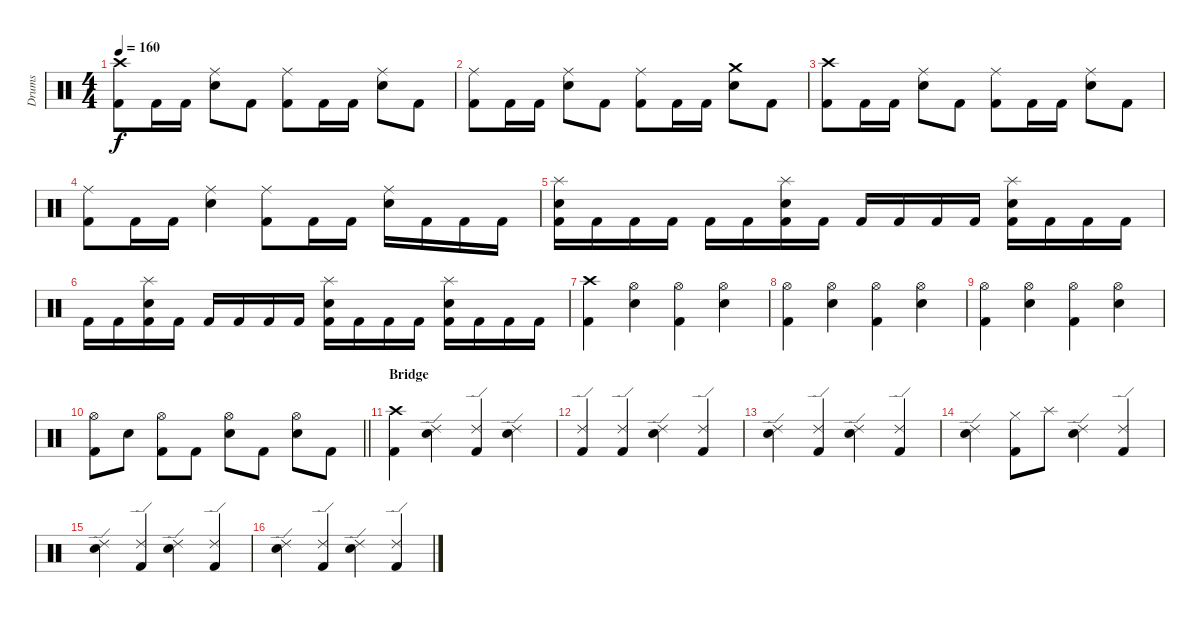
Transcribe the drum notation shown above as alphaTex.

\track ("Drums" "Drums") {instrument percussion}
\staff {score}
\articulation defaults
\ts (4 4)
\tempo 160
\clef neutral
\ks c
("Crash high (hit)" "Kick (hit) 2").8{dy f} "Kick (hit) 2".16 "Kick (hit) 2".16 ("Ride (middle)" "Snare (hit) 2").8 "Kick (hit) 2".8 ("Ride (middle)" "Kick (hit) 2").8 "Kick (hit) 2".16 "Kick (hit) 2".16 ("Ride (middle)" "Snare (hit) 2").8 "Kick (hit) 2".8 |
("Ride (middle)" "Kick (hit) 2").8 "Kick (hit) 2".16 "Kick (hit) 2".16 ("Ride (middle)" "Snare (hit) 2").8 "Kick (hit) 2".8 ("Ride (middle)" "Kick (hit) 2").8 "Kick (hit) 2".16 "Kick (hit) 2".16 ("Crash medium (hit)" "Snare (hit) 2").8 "Kick (hit) 2".8 |
("Crash high (hit)" "Kick (hit) 2").8 "Kick (hit) 2".16 "Kick (hit) 2".16 ("Ride (middle)" "Snare (hit) 2").8 "Kick (hit) 2".8 ("Ride (middle)" "Kick (hit) 2").8 "Kick (hit) 2".16 "Kick (hit) 2".16 ("Ride (middle)" "Snare (hit) 2").8 "Kick (hit) 2".8 |
("Ride (middle)" "Kick (hit) 2").8 "Kick (hit) 2".16 "Kick (hit) 2".16 ("Ride (middle)" "Snare (hit) 2").4 ("Ride (middle)" "Kick (hit) 2").8 "Kick (hit) 2".16 "Kick (hit) 2".16 ("Ride (middle)" "Snare (hit) 2").16 "Kick (hit) 2".16 "Kick (hit) 2".16 "Kick (hit) 2".16 |
("Splash (hit)" "Snare (hit) 2" "Kick (hit) 2").16 "Kick (hit) 2".16 "Kick (hit) 2".16 "Kick (hit) 2".16 "Kick (hit) 2".16 "Kick (hit) 2".16 ("Splash (hit)" "Snare (hit) 2" "Kick (hit) 2").16 "Kick (hit) 2".16 "Kick (hit) 2".16 "Kick (hit) 2".16 "Kick (hit) 2".16 "Kick (hit) 2".16 ("Splash (hit)" "Snare (hit) 2" "Kick (hit) 2").16 "Kick (hit) 2".16 "Kick (hit) 2".16 "Kick (hit) 2".16 |
"Kick (hit) 2".16 "Kick (hit) 2".16 ("Splash (hit)" "Snare (hit) 2" "Kick (hit) 2").16 "Kick (hit) 2".16 "Kick (hit) 2".16 "Kick (hit) 2".16 "Kick (hit) 2".16 "Kick (hit) 2".16 ("Splash (hit)" "Snare (hit) 2" "Kick (hit) 2").16 "Kick (hit) 2".16 "Kick (hit) 2".16 "Kick (hit) 2".16 ("Splash (hit)" "Snare (hit) 2" "Kick (hit) 2").16 "Kick (hit) 2".16 "Kick (hit) 2".16 "Kick (hit) 2".16 |
("Crash high (hit)" "Kick (hit) 2").4 ("Hi-Hat (open)" "Snare (hit) 2").4 ("Hi-Hat (open)" "Kick (hit) 2").4 ("Hi-Hat (open)" "Snare (hit) 2").4 |
("Hi-Hat (open)" "Kick (hit) 2").4 ("Hi-Hat (open)" "Snare (hit) 2").4 ("Hi-Hat (open)" "Kick (hit) 2").4 ("Hi-Hat (open)" "Snare (hit) 2").4 |
("Hi-Hat (open)" "Kick (hit) 2").4 ("Hi-Hat (open)" "Snare (hit) 2").4 ("Hi-Hat (open)" "Kick (hit) 2").4 ("Hi-Hat (open)" "Snare (hit) 2").4 |
\barLineRight lightlight
("Hi-Hat (open)" "Kick (hit) 2").8 "Snare (hit) 2".8 ("Hi-Hat (open)" "Kick (hit) 2").8 "Kick (hit) 2".8 ("Hi-Hat (open)" "Snare (hit) 2").8 "Kick (hit) 2".8 ("Hi-Hat (open)" "Snare (hit) 2").8 "Kick (hit) 2".8 |
\section ("" "Bridge")
("Crash high (hit)" "Kick (hit) 2").4 ("Ride (edge) 2" "Snare (hit) 2").4 ("Ride (edge) 2" "Kick (hit) 2").4 ("Ride (edge) 2" "Snare (hit) 2").4 |
("Ride (edge) 2" "Kick (hit) 2").4 ("Ride (edge) 2" "Kick (hit) 2").4 ("Ride (edge) 2" "Snare (hit) 2").4 ("Ride (edge) 2" "Kick (hit) 2").4 |
("Ride (edge) 2" "Snare (hit) 2").4 ("Ride (edge) 2" "Kick (hit) 2").4 ("Ride (edge) 2" "Snare (hit) 2").4 ("Ride (edge) 2" "Kick (hit) 2").4 |
("Ride (edge) 2" "Snare (hit) 2").4 ("Hi-Hat (closed)" "Kick (hit) 2").8 "Splash (hit)".8 ("Ride (edge) 2" "Snare (hit) 2").4 ("Ride (edge) 2" "Kick (hit) 2").4 |
("Ride (edge) 2" "Snare (hit) 2").4 ("Ride (edge) 2" "Kick (hit) 2").4 ("Ride (edge) 2" "Snare (hit) 2").4 ("Ride (edge) 2" "Kick (hit) 2").4 |
("Ride (edge) 2" "Snare (hit) 2").4 ("Ride (edge) 2" "Kick (hit) 2").4 ("Ride (edge) 2" "Snare (hit) 2").4 ("Ride (edge) 2" "Kick (hit) 2").4
